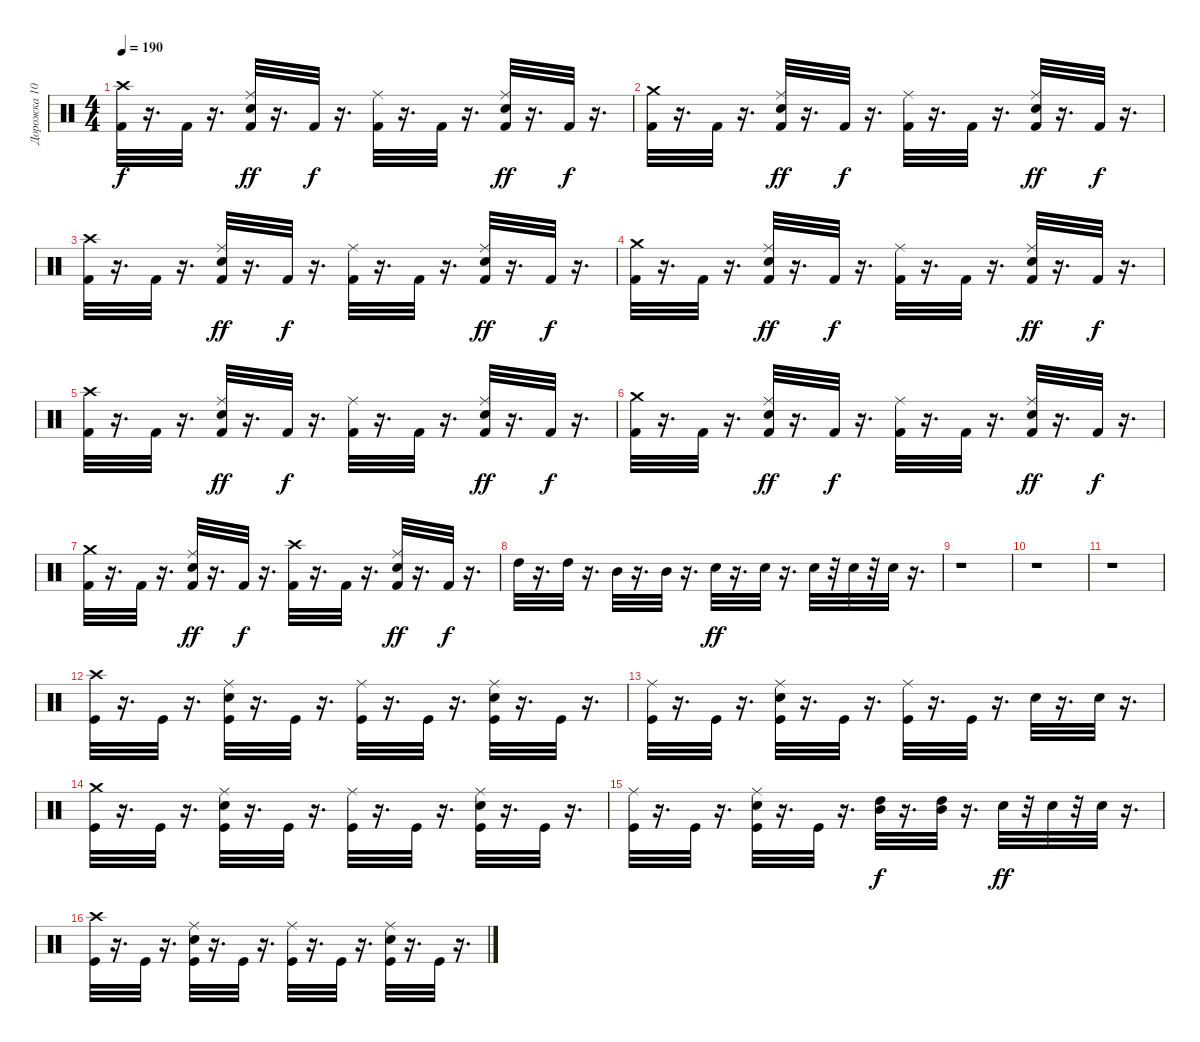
\track ("Дорожка 10" "Дорожка 10") {instrument percussion}
\staff {score}
\articulation defaults
\ts (4 4)
\tempo 190
\clef neutral
\ks c
("Crash high (hit)" "Kick (hit) 2").32{dy f} r.16{d} "Kick (hit) 2".32 r.16{d} ("Ride (middle)" "Kick (hit) 2" "Snare (hit) 2").32{dy ff} r.16{d} "Kick (hit) 2".32{dy f} r.16{d} ("Ride (middle)" "Kick (hit) 2").32 r.16{d} "Kick (hit) 2".32 r.16{d} ("Ride (middle)" "Kick (hit) 2" "Snare (hit) 2").32{dy ff} r.16{d} "Kick (hit) 2".32{dy f} r.16{d} |
("Crash medium (hit)" "Kick (hit) 2").32 r.16{d} "Kick (hit) 2".32 r.16{d} ("Ride (middle)" "Snare (hit) 2" "Kick (hit) 2").32{dy ff} r.16{d} "Kick (hit) 2".32{dy f} r.16{d} ("Ride (middle)" "Kick (hit) 2").32 r.16{d} "Kick (hit) 2".32 r.16{d} ("Ride (middle)" "Snare (hit) 2" "Kick (hit) 2").32{dy ff} r.16{d} "Kick (hit) 2".32{dy f} r.16{d} |
("Crash high (hit)" "Kick (hit) 2").32 r.16{d} "Kick (hit) 2".32 r.16{d} ("Ride (middle)" "Kick (hit) 2" "Snare (hit) 2").32{dy ff} r.16{d} "Kick (hit) 2".32{dy f} r.16{d} ("Ride (middle)" "Kick (hit) 2").32 r.16{d} "Kick (hit) 2".32 r.16{d} ("Ride (middle)" "Kick (hit) 2" "Snare (hit) 2").32{dy ff} r.16{d} "Kick (hit) 2".32{dy f} r.16{d} |
("Crash medium (hit)" "Kick (hit) 2").32 r.16{d} "Kick (hit) 2".32 r.16{d} ("Ride (middle)" "Snare (hit) 2" "Kick (hit) 2").32{dy ff} r.16{d} "Kick (hit) 2".32{dy f} r.16{d} ("Ride (middle)" "Kick (hit) 2").32 r.16{d} "Kick (hit) 2".32 r.16{d} ("Ride (middle)" "Snare (hit) 2" "Kick (hit) 2").32{dy ff} r.16{d} "Kick (hit) 2".32{dy f} r.16{d} |
("Crash high (hit)" "Kick (hit) 2").32 r.16{d} "Kick (hit) 2".32 r.16{d} ("Ride (middle)" "Kick (hit) 2" "Snare (hit) 2").32{dy ff} r.16{d} "Kick (hit) 2".32{dy f} r.16{d} ("Ride (middle)" "Kick (hit) 2").32 r.16{d} "Kick (hit) 2".32 r.16{d} ("Ride (middle)" "Kick (hit) 2" "Snare (hit) 2").32{dy ff} r.16{d} "Kick (hit) 2".32{dy f} r.16{d} |
("Crash medium (hit)" "Kick (hit) 2").32 r.16{d} "Kick (hit) 2".32 r.16{d} ("Ride (middle)" "Snare (hit) 2" "Kick (hit) 2").32{dy ff} r.16{d} "Kick (hit) 2".32{dy f} r.16{d} ("Ride (middle)" "Kick (hit) 2").32 r.16{d} "Kick (hit) 2".32 r.16{d} ("Ride (middle)" "Snare (hit) 2" "Kick (hit) 2").32{dy ff} r.16{d} "Kick (hit) 2".32{dy f} r.16{d} |
("Crash medium (hit)" "Kick (hit) 2").32 r.16{d} "Kick (hit) 2".32 r.16{d} ("Ride (middle)" "Snare (hit) 2" "Kick (hit) 2").32{dy ff} r.16{d} "Kick (hit) 2".32{dy f} r.16{d} ("Crash high (hit)" "Kick (hit) 2").32 r.16{d} "Kick (hit) 2".32 r.16{d} ("Ride (middle)" "Snare (hit) 2" "Kick (hit) 2").32{dy ff} r.16{d} "Kick (hit) 2".32{dy f} r.16{d} |
"High Tom (hit)".32 r.16{d} "High Tom (hit)".32 r.16{d} "Mid Tom (hit)".32 r.16{d} "Mid Tom (hit)".32 r.16{d} "Snare (hit) 2".32{dy ff} r.16{d} "Snare (hit) 2".32 r.16{d} "Snare (hit) 2".32 r.32 "Snare (hit) 2".32 r.32 "Snare (hit) 2".32 r.16{d} |
r.1 |
r.1 |
r.1 |
("Crash high (hit)" "Kick (hit)").32 r.16{d} "Kick (hit)".32 r.16{d} ("Ride (middle)" "Kick (hit)" "Snare (hit) 2").32 r.16{d} "Kick (hit)".32 r.16{d} ("Ride (middle)" "Kick (hit)").32 r.16{d} "Kick (hit)".32 r.16{d} ("Ride (middle)" "Kick (hit)" "Snare (hit) 2").32 r.16{d} "Kick (hit)".32 r.16{d} |
("Ride (middle)" "Kick (hit)").32 r.16{d} "Kick (hit)".32 r.16{d} ("Ride (middle)" "Kick (hit)" "Snare (hit) 2").32 r.16{d} "Kick (hit)".32 r.16{d} ("Ride (middle)" "Kick (hit)").32 r.16{d} "Kick (hit)".32 r.16{d} "Snare (hit) 2".32 r.16{d} "Snare (hit) 2".32 r.16{d} |
("Crash medium (hit)" "Kick (hit)").32 r.16{d} "Kick (hit)".32 r.16{d} ("Kick (hit)" "Snare (hit) 2" "Ride (middle)").32 r.16{d} "Kick (hit)".32 r.16{d} ("Kick (hit)" "Ride (middle)").32 r.16{d} "Kick (hit)".32 r.16{d} ("Kick (hit)" "Snare (hit) 2" "Ride (middle)").32 r.16{d} "Kick (hit)".32 r.16{d} |
("Ride (middle)" "Kick (hit)").32 r.16{d} "Kick (hit)".32 r.16{d} ("Ride (middle)" "Kick (hit)" "Snare (hit) 2").32 r.16{d} "Kick (hit)".32 r.16{d} ("Mid Tom (hit)" "High Tom (hit)").32{dy f} r.16{d} ("Mid Tom (hit)" "High Tom (hit)").32 r.16{d} "Snare (hit) 2".32{dy ff} r.32 "Snare (hit) 2".32 r.32 "Snare (hit) 2".32 r.16{d} |
("Crash high (hit)" "Kick (hit)").32 r.16{d} "Kick (hit)".32 r.16{d} ("Ride (middle)" "Kick (hit)" "Snare (hit) 2").32 r.16{d} "Kick (hit)".32 r.16{d} ("Ride (middle)" "Kick (hit)").32 r.16{d} "Kick (hit)".32 r.16{d} ("Ride (middle)" "Kick (hit)" "Snare (hit) 2").32 r.16{d} "Kick (hit)".32 r.16{d}
